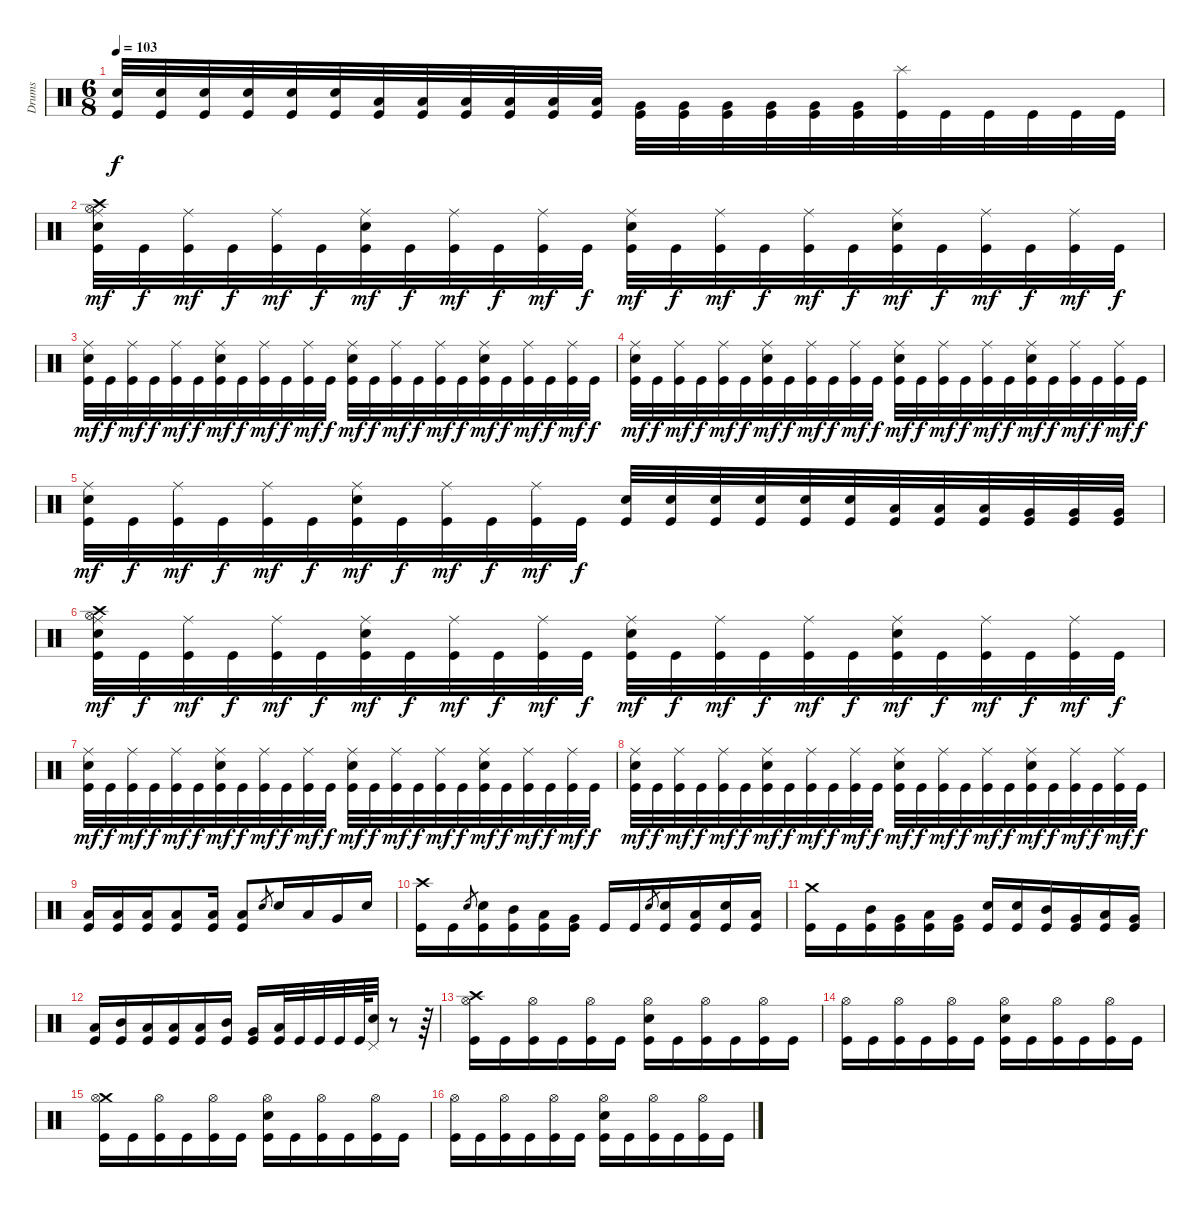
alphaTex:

\track ("Drums" "Drums") {instrument percussion}
\staff {score}
\articulation defaults
\ts (6 8)
\tempo 103
\clef neutral
\ks c
("Electric Snare (hit)" "Kick (hit)").32{dy f} ("Electric Snare (hit)" "Kick (hit)").32 ("Electric Snare (hit)" "Kick (hit)").32 ("Electric Snare (hit)" "Kick (hit)").32 ("Electric Snare (hit)" "Kick (hit)").32 ("Electric Snare (hit)" "Kick (hit)").32 ("Low Tom (hit)" "Kick (hit)").32 ("Low Tom (hit)" "Kick (hit)").32 ("Low Tom (hit)" "Kick (hit)").32 ("Low Tom (hit)" "Kick (hit)").32 ("Low Tom (hit)" "Kick (hit)").32 ("Low Tom (hit)" "Kick (hit)").32 ("Very Low Tom (hit)" "Kick (hit)").32 ("Very Low Tom (hit)" "Kick (hit)").32 ("Very Low Tom (hit)" "Kick (hit)").32 ("Very Low Tom (hit)" "Kick (hit)").32 ("Very Low Tom (hit)" "Kick (hit)").32 ("Very Low Tom (hit)" "Kick (hit)").32 ("Splash (hit)" "Kick (hit)").32 "Kick (hit)".32 "Kick (hit)".32 "Kick (hit)".32 "Kick (hit)".32 "Kick (hit)".32 |
("Crash high (hit)" "Hi-Hat (open)" "Ride (middle)" "Electric Snare (hit)" "Kick (hit)").32{dy mf} "Kick (hit)".32{dy f} ("Ride (middle)" "Kick (hit)").32{dy mf} "Kick (hit)".32{dy f} ("Ride (middle)" "Kick (hit)").32{dy mf} "Kick (hit)".32{dy f} ("Ride (middle)" "Electric Snare (hit)" "Kick (hit)").32{dy mf} "Kick (hit)".32{dy f} ("Ride (middle)" "Kick (hit)").32{dy mf} "Kick (hit)".32{dy f} ("Ride (middle)" "Kick (hit)").32{dy mf} "Kick (hit)".32{dy f} ("Ride (middle)" "Electric Snare (hit)" "Kick (hit)").32{dy mf} "Kick (hit)".32{dy f} ("Ride (middle)" "Kick (hit)").32{dy mf} "Kick (hit)".32{dy f} ("Ride (middle)" "Kick (hit)").32{dy mf} "Kick (hit)".32{dy f} ("Ride (middle)" "Electric Snare (hit)" "Kick (hit)").32{dy mf} "Kick (hit)".32{dy f} ("Ride (middle)" "Kick (hit)").32{dy mf} "Kick (hit)".32{dy f} ("Ride (middle)" "Kick (hit)").32{dy mf} "Kick (hit)".32{dy f} |
("Ride (middle)" "Electric Snare (hit)" "Kick (hit)").32{dy mf} "Kick (hit)".32{dy f} ("Ride (middle)" "Kick (hit)").32{dy mf} "Kick (hit)".32{dy f} ("Ride (middle)" "Kick (hit)").32{dy mf} "Kick (hit)".32{dy f} ("Ride (middle)" "Electric Snare (hit)" "Kick (hit)").32{dy mf} "Kick (hit)".32{dy f} ("Ride (middle)" "Kick (hit)").32{dy mf} "Kick (hit)".32{dy f} ("Ride (middle)" "Kick (hit)").32{dy mf} "Kick (hit)".32{dy f} ("Ride (middle)" "Electric Snare (hit)" "Kick (hit)").32{dy mf} "Kick (hit)".32{dy f} ("Ride (middle)" "Kick (hit)").32{dy mf} "Kick (hit)".32{dy f} ("Ride (middle)" "Kick (hit)").32{dy mf} "Kick (hit)".32{dy f} ("Ride (middle)" "Electric Snare (hit)" "Kick (hit)").32{dy mf} "Kick (hit)".32{dy f} ("Ride (middle)" "Kick (hit)").32{dy mf} "Kick (hit)".32{dy f} ("Ride (middle)" "Kick (hit)").32{dy mf} "Kick (hit)".32{dy f} |
("Ride (middle)" "Electric Snare (hit)" "Kick (hit)").32{dy mf} "Kick (hit)".32{dy f} ("Ride (middle)" "Kick (hit)").32{dy mf} "Kick (hit)".32{dy f} ("Ride (middle)" "Kick (hit)").32{dy mf} "Kick (hit)".32{dy f} ("Ride (middle)" "Electric Snare (hit)" "Kick (hit)").32{dy mf} "Kick (hit)".32{dy f} ("Ride (middle)" "Kick (hit)").32{dy mf} "Kick (hit)".32{dy f} ("Ride (middle)" "Kick (hit)").32{dy mf} "Kick (hit)".32{dy f} ("Ride (middle)" "Electric Snare (hit)" "Kick (hit)").32{dy mf} "Kick (hit)".32{dy f} ("Ride (middle)" "Kick (hit)").32{dy mf} "Kick (hit)".32{dy f} ("Ride (middle)" "Kick (hit)").32{dy mf} "Kick (hit)".32{dy f} ("Ride (middle)" "Electric Snare (hit)" "Kick (hit)").32{dy mf} "Kick (hit)".32{dy f} ("Ride (middle)" "Kick (hit)").32{dy mf} "Kick (hit)".32{dy f} ("Ride (middle)" "Kick (hit)").32{dy mf} "Kick (hit)".32{dy f} |
("Ride (middle)" "Electric Snare (hit)" "Kick (hit)").32{dy mf} "Kick (hit)".32{dy f} ("Ride (middle)" "Kick (hit)").32{dy mf} "Kick (hit)".32{dy f} ("Ride (middle)" "Kick (hit)").32{dy mf} "Kick (hit)".32{dy f} ("Ride (middle)" "Electric Snare (hit)" "Kick (hit)").32{dy mf} "Kick (hit)".32{dy f} ("Ride (middle)" "Kick (hit)").32{dy mf} "Kick (hit)".32{dy f} ("Ride (middle)" "Kick (hit)").32{dy mf} "Kick (hit)".32{dy f} ("Electric Snare (hit)" "Kick (hit)").32 ("Electric Snare (hit)" "Kick (hit)").32 ("Electric Snare (hit)" "Kick (hit)").32 ("Electric Snare (hit)" "Kick (hit)").32 ("Electric Snare (hit)" "Kick (hit)").32 ("Electric Snare (hit)" "Kick (hit)").32 ("Low Tom (hit)" "Kick (hit)").32 ("Low Tom (hit)" "Kick (hit)").32 ("Low Tom (hit)" "Kick (hit)").32 ("Very Low Tom (hit)" "Kick (hit)").32 ("Very Low Tom (hit)" "Kick (hit)").32 ("Very Low Tom (hit)" "Kick (hit)").32 |
("Crash high (hit)" "Hi-Hat (open)" "Ride (middle)" "Electric Snare (hit)" "Kick (hit)").32{dy mf} "Kick (hit)".32{dy f} ("Ride (middle)" "Kick (hit)").32{dy mf} "Kick (hit)".32{dy f} ("Ride (middle)" "Kick (hit)").32{dy mf} "Kick (hit)".32{dy f} ("Ride (middle)" "Electric Snare (hit)" "Kick (hit)").32{dy mf} "Kick (hit)".32{dy f} ("Ride (middle)" "Kick (hit)").32{dy mf} "Kick (hit)".32{dy f} ("Ride (middle)" "Kick (hit)").32{dy mf} "Kick (hit)".32{dy f} ("Ride (middle)" "Electric Snare (hit)" "Kick (hit)").32{dy mf} "Kick (hit)".32{dy f} ("Ride (middle)" "Kick (hit)").32{dy mf} "Kick (hit)".32{dy f} ("Ride (middle)" "Kick (hit)").32{dy mf} "Kick (hit)".32{dy f} ("Ride (middle)" "Electric Snare (hit)" "Kick (hit)").32{dy mf} "Kick (hit)".32{dy f} ("Ride (middle)" "Kick (hit)").32{dy mf} "Kick (hit)".32{dy f} ("Ride (middle)" "Kick (hit)").32{dy mf} "Kick (hit)".32{dy f} |
("Ride (middle)" "Electric Snare (hit)" "Kick (hit)").32{dy mf} "Kick (hit)".32{dy f} ("Ride (middle)" "Kick (hit)").32{dy mf} "Kick (hit)".32{dy f} ("Ride (middle)" "Kick (hit)").32{dy mf} "Kick (hit)".32{dy f} ("Ride (middle)" "Electric Snare (hit)" "Kick (hit)").32{dy mf} "Kick (hit)".32{dy f} ("Ride (middle)" "Kick (hit)").32{dy mf} "Kick (hit)".32{dy f} ("Ride (middle)" "Kick (hit)").32{dy mf} "Kick (hit)".32{dy f} ("Ride (middle)" "Electric Snare (hit)" "Kick (hit)").32{dy mf} "Kick (hit)".32{dy f} ("Ride (middle)" "Kick (hit)").32{dy mf} "Kick (hit)".32{dy f} ("Ride (middle)" "Kick (hit)").32{dy mf} "Kick (hit)".32{dy f} ("Ride (middle)" "Electric Snare (hit)" "Kick (hit)").32{dy mf} "Kick (hit)".32{dy f} ("Ride (middle)" "Kick (hit)").32{dy mf} "Kick (hit)".32{dy f} ("Ride (middle)" "Kick (hit)").32{dy mf} "Kick (hit)".32{dy f} |
("Ride (middle)" "Electric Snare (hit)" "Kick (hit)").32{dy mf} "Kick (hit)".32{dy f} ("Ride (middle)" "Kick (hit)").32{dy mf} "Kick (hit)".32{dy f} ("Ride (middle)" "Kick (hit)").32{dy mf} "Kick (hit)".32{dy f} ("Ride (middle)" "Electric Snare (hit)" "Kick (hit)").32{dy mf} "Kick (hit)".32{dy f} ("Ride (middle)" "Kick (hit)").32{dy mf} "Kick (hit)".32{dy f} ("Ride (middle)" "Kick (hit)").32{dy mf} "Kick (hit)".32{dy f} ("Ride (middle)" "Electric Snare (hit)" "Kick (hit)").32{dy mf} "Kick (hit)".32{dy f} ("Ride (middle)" "Kick (hit)").32{dy mf} "Kick (hit)".32{dy f} ("Ride (middle)" "Kick (hit)").32{dy mf} "Kick (hit)".32{dy f} ("Ride (middle)" "Electric Snare (hit)" "Kick (hit)").32{dy mf} "Kick (hit)".32{dy f} ("Ride (middle)" "Kick (hit)").32{dy mf} "Kick (hit)".32{dy f} ("Ride (middle)" "Kick (hit)").32{dy mf} "Kick (hit)".32{dy f} |
("Low Floor Tom (hit)" "Kick (hit)").16 ("Low Floor Tom (hit)" "Kick (hit)").16 ("Low Floor Tom (hit)" "Kick (hit)").16 ("Low Floor Tom (hit)" "Kick (hit)").8 ("Low Floor Tom (hit)" "Kick (hit)").16 ("Low Floor Tom (hit)" "Kick (hit)").8 "Electric Snare (hit)".8{gr} "Electric Snare (hit)".16 "Low Tom (hit)".16 "Very Low Tom (hit)".16 "Electric Snare (hit)".16 |
("Crash high (hit)" "Kick (hit)").16 "Kick (hit)".16 "Electric Snare (hit)".8{gr} ("Electric Snare (hit)" "Kick (hit)").16 ("Mid Tom (hit)" "Kick (hit)").16 ("Low Tom (hit)" "Kick (hit)").16 ("Very Low Tom (hit)" "Kick (hit)").16 "Kick (hit)".16 "Kick (hit)".16 "Electric Snare (hit)".8{gr} ("Electric Snare (hit)" "Kick (hit)").16 ("Low Tom (hit)" "Kick (hit)").16 ("Electric Snare (hit)" "Kick (hit)").16 ("Low Floor Tom (hit)" "Kick (hit)").16 |
("Crash medium (hit)" "Kick (hit)").16 "Kick (hit)".16 ("Mid Tom (hit)" "Kick (hit)").16 ("Very Low Tom (hit)" "Kick (hit)").16 ("Low Tom (hit)" "Kick (hit)").16 ("Very Low Tom (hit)" "Kick (hit)").16 ("Electric Snare (hit)" "Kick (hit)").16 ("Electric Snare (hit)" "Kick (hit)").16 ("Mid Tom (hit)" "Kick (hit)").16 ("Very Low Tom (hit)" "Kick (hit)").16 ("Low Tom (hit)" "Kick (hit)").16 ("Very Low Tom (hit)" "Kick (hit)").16 |
("Low Floor Tom (hit)" "Kick (hit)").16 ("Mid Tom (hit)" "Kick (hit)").16 ("Low Floor Tom (hit)" "Kick (hit)").16 ("Low Tom (hit)" "Kick (hit)").16 ("Low Tom (hit)" "Kick (hit)").16 ("Mid Tom (hit)" "Kick (hit)").16 ("Very Low Tom (hit)" "Kick (hit)").16 ("Low Floor Tom (hit)" "Kick (hit)").32 "Kick (hit)".32 "Kick (hit)".32 "Kick (hit)".32 "Kick (hit)".64 ("Pedal Hi-Hat (hit)" "Electric Snare (hit)").32 r.8 r.64 |
("Crash high (hit)" "Hi-Hat (open)" "Kick (hit)").16 "Kick (hit)".16 ("Hi-Hat (open)" "Kick (hit)").16 "Kick (hit)".16 ("Hi-Hat (open)" "Kick (hit)").16 "Kick (hit)".16 ("Hi-Hat (open)" "Electric Snare (hit)" "Kick (hit)").16 "Kick (hit)".16 ("Hi-Hat (open)" "Kick (hit)").16 "Kick (hit)".16 ("Hi-Hat (open)" "Kick (hit)").16 "Kick (hit)".16 |
("Hi-Hat (open)" "Kick (hit)").16 "Kick (hit)".16 ("Hi-Hat (open)" "Kick (hit)").16 "Kick (hit)".16 ("Hi-Hat (open)" "Kick (hit)").16 "Kick (hit)".16 ("Hi-Hat (open)" "Electric Snare (hit)" "Kick (hit)").16 "Kick (hit)".16 ("Hi-Hat (open)" "Kick (hit)").16 "Kick (hit)".16 ("Hi-Hat (open)" "Kick (hit)").16 "Kick (hit)".16 |
("Crash medium (hit)" "Hi-Hat (open)" "Kick (hit)").16 "Kick (hit)".16 ("Hi-Hat (open)" "Kick (hit)").16 "Kick (hit)".16 ("Hi-Hat (open)" "Kick (hit)").16 "Kick (hit)".16 ("Hi-Hat (open)" "Electric Snare (hit)" "Kick (hit)").16 "Kick (hit)".16 ("Hi-Hat (open)" "Kick (hit)").16 "Kick (hit)".16 ("Hi-Hat (open)" "Kick (hit)").16 "Kick (hit)".16 |
("Hi-Hat (open)" "Kick (hit)").16 "Kick (hit)".16 ("Hi-Hat (open)" "Kick (hit)").16 "Kick (hit)".16 ("Hi-Hat (open)" "Kick (hit)").16 "Kick (hit)".16 ("Hi-Hat (open)" "Electric Snare (hit)" "Kick (hit)").16 "Kick (hit)".16 ("Hi-Hat (open)" "Kick (hit)").16 "Kick (hit)".16 ("Hi-Hat (open)" "Kick (hit)").16 "Kick (hit)".16
